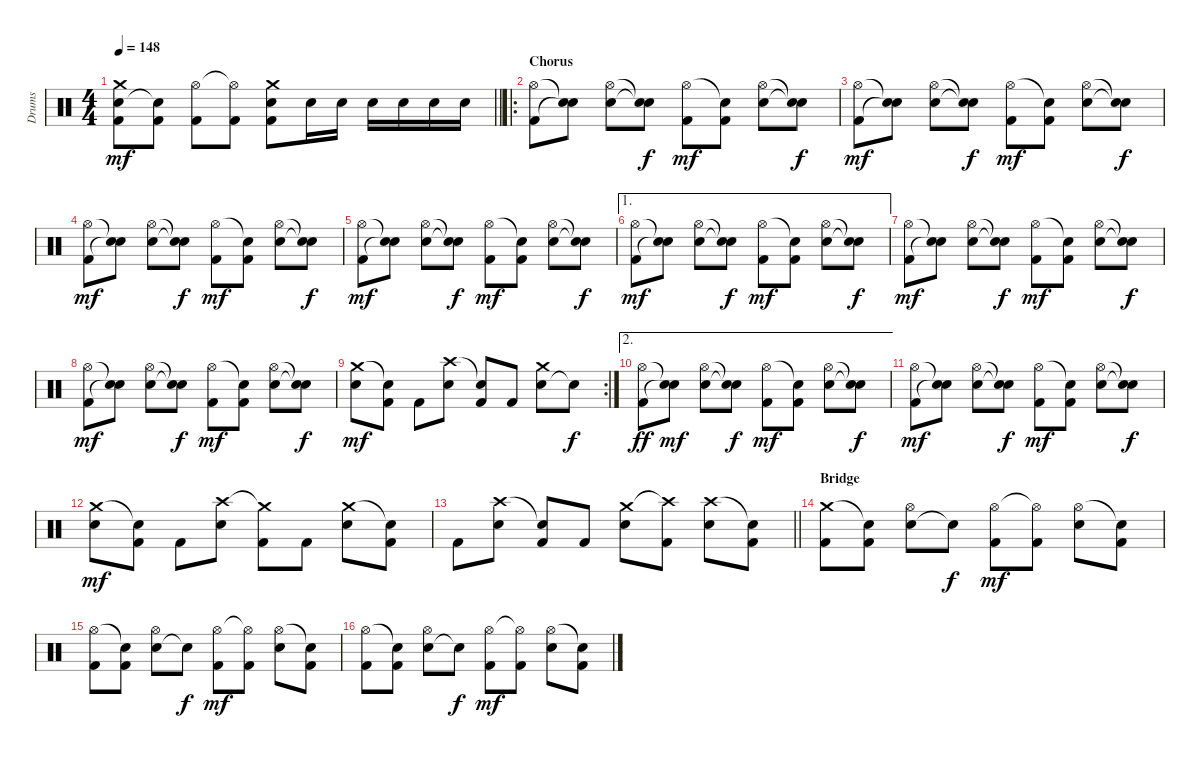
\track ("Drums" "Drums") {instrument percussion}
\staff {score}
\articulation defaults
\ts (4 4)
\tempo 148
\clef neutral
\barLineRight lightlight
\ks c
("Kick (hit) 2" "Snare (hit) 2" "Crash medium (hit)").8{dy mf} ("Kick (hit) 2" "Snare (hit)"{t}).8 ("Kick (hit) 2" "Hi-Hat (open)").8 ("Kick (hit) 2" "Hi-Hat (open)"{t}).8 ("Kick (hit) 2" "Snare (hit) 2" "Crash medium (hit)").8 "Snare (hit) 2".16 "Snare (hit) 2".16 "Snare (hit) 2".16 "Snare (hit) 2".16 "Snare (hit) 2".16 "Snare (hit) 2".16 |
\ro
\section ("" "Chorus")
("Kick (hit) 2" "Hi-Hat (open)").8 ("Snare (hit)"{t} "Snare (hit)"{t}).8 ("Snare (hit) 2" "Hi-Hat (open)").8 ("Snare (hit)"{t} "Snare (hit)"{t}).8{dy f} ("Kick (hit) 2" "Hi-Hat (open)").8{dy mf} ("Kick (hit) 2" "Snare (hit)"{t}).8 ("Snare (hit) 2" "Hi-Hat (open)").8 ("Snare (hit)"{t} "Snare (hit)"{t}).8{dy f} |
("Kick (hit) 2" "Hi-Hat (open)").8{dy mf} ("Snare (hit)"{t} "Snare (hit)"{t}).8 ("Snare (hit) 2" "Hi-Hat (open)").8 ("Snare (hit)"{t} "Snare (hit)"{t}).8{dy f} ("Kick (hit) 2" "Hi-Hat (open)").8{dy mf} ("Kick (hit) 2" "Snare (hit)"{t}).8 ("Snare (hit) 2" "Hi-Hat (open)").8 ("Snare (hit)"{t} "Snare (hit)"{t}).8{dy f} |
("Kick (hit) 2" "Hi-Hat (open)").8{dy mf} ("Snare (hit)"{t} "Snare (hit)"{t}).8 ("Snare (hit) 2" "Hi-Hat (open)").8 ("Snare (hit)"{t} "Snare (hit)"{t}).8{dy f} ("Kick (hit) 2" "Hi-Hat (open)").8{dy mf} ("Kick (hit) 2" "Snare (hit)"{t}).8 ("Snare (hit) 2" "Hi-Hat (open)").8 ("Snare (hit)"{t} "Snare (hit)"{t}).8{dy f} |
("Kick (hit) 2" "Hi-Hat (open)").8{dy mf} ("Snare (hit)"{t} "Snare (hit)"{t}).8 ("Snare (hit) 2" "Hi-Hat (open)").8 ("Snare (hit)"{t} "Snare (hit)"{t}).8{dy f} ("Kick (hit) 2" "Hi-Hat (open)").8{dy mf} ("Kick (hit) 2" "Snare (hit)"{t}).8 ("Snare (hit) 2" "Hi-Hat (open)").8 ("Snare (hit)"{t} "Snare (hit)"{t}).8{dy f} |
\ae 1
("Kick (hit) 2" "Hi-Hat (open)").8{dy mf} ("Snare (hit)"{t} "Snare (hit)"{t}).8 ("Snare (hit) 2" "Hi-Hat (open)").8 ("Snare (hit)"{t} "Snare (hit)"{t}).8{dy f} ("Kick (hit) 2" "Hi-Hat (open)").8{dy mf} ("Kick (hit) 2" "Snare (hit)"{t}).8 ("Snare (hit) 2" "Hi-Hat (open)").8 ("Snare (hit)"{t} "Snare (hit)"{t}).8{dy f} |
("Kick (hit) 2" "Hi-Hat (open)").8{dy mf} ("Snare (hit)"{t} "Snare (hit)"{t}).8 ("Snare (hit) 2" "Hi-Hat (open)").8 ("Snare (hit)"{t} "Snare (hit)"{t}).8{dy f} ("Kick (hit) 2" "Hi-Hat (open)").8{dy mf} ("Kick (hit) 2" "Snare (hit)"{t}).8 ("Snare (hit) 2" "Hi-Hat (open)").8 ("Snare (hit)"{t} "Snare (hit)"{t}).8{dy f} |
("Kick (hit) 2" "Hi-Hat (open)").8{dy mf} ("Snare (hit)"{t} "Snare (hit)"{t}).8 ("Snare (hit) 2" "Hi-Hat (open)").8 ("Snare (hit)"{t} "Snare (hit)"{t}).8{dy f} ("Kick (hit) 2" "Hi-Hat (open)").8{dy mf} ("Kick (hit) 2" "Snare (hit)"{t}).8 ("Snare (hit) 2" "Hi-Hat (open)").8 ("Snare (hit)"{t} "Snare (hit)"{t}).8{dy f} |
\rc 2
("Snare (hit) 2" "Crash medium (hit)").8{dy mf} ("Kick (hit) 2" "Snare (hit)"{t}).8 "Kick (hit) 2".8 ("Snare (hit) 2" "Crash high (hit)").8 ("Kick (hit) 2" "Snare (hit)"{t}).8 "Kick (hit) 2".8 ("Snare (hit) 2" "Crash medium (hit)").8 "Snare (hit)"{t}.8{dy f} |
\ae 2
("Kick (hit) 2" "Hi-Hat (open)").8{dy ff} ("Snare (hit)"{t} "Snare (hit)"{t}).8{dy mf} ("Snare (hit) 2" "Hi-Hat (open)").8 ("Snare (hit)"{t} "Snare (hit)"{t}).8{dy f} ("Kick (hit) 2" "Hi-Hat (open)").8{dy mf} ("Kick (hit) 2" "Snare (hit)"{t}).8 ("Snare (hit) 2" "Hi-Hat (open)").8 ("Snare (hit)"{t} "Snare (hit)"{t}).8{dy f} |
("Kick (hit) 2" "Hi-Hat (open)").8{dy mf} ("Snare (hit)"{t} "Snare (hit)"{t}).8 ("Snare (hit) 2" "Hi-Hat (open)").8 ("Snare (hit)"{t} "Snare (hit)"{t}).8{dy f} ("Kick (hit) 2" "Hi-Hat (open)").8{dy mf} ("Kick (hit) 2" "Snare (hit)"{t}).8 ("Snare (hit) 2" "Hi-Hat (open)").8 ("Snare (hit)"{t} "Snare (hit)"{t}).8{dy f} |
("Snare (hit) 2" "Crash medium (hit)").8{dy mf} ("Kick (hit) 2" "Snare (hit)"{t}).8 "Kick (hit) 2".8 ("Snare (hit) 2" "Crash high (hit)").8 ("Kick (hit) 2" "Crash medium (hit)"{t}).8 "Kick (hit) 2".8 ("Snare (hit) 2" "Crash medium (hit)").8 ("Kick (hit) 2" "Snare (hit)"{t}).8 |
\barLineRight lightlight "Kick (hit) 2".8
("Snare (hit) 2" "Crash high (hit)").8 ("Kick (hit) 2" "Snare (hit)"{t}).8 "Kick (hit) 2".8 ("Snare (hit) 2" "Crash medium (hit)").8 ("Kick (hit) 2" "Crash high (hit)"{t}).8 ("Snare (hit) 2" "Crash high (hit)").8 ("Kick (hit) 2" "Snare (hit)"{t}).8 |
\section ("" "Bridge")
("Kick (hit) 2" "Crash medium (hit)").8 ("Kick (hit) 2" "Snare (hit)"{t}).8 ("Snare (hit) 2" "Hi-Hat (open)").8 "Snare (hit)"{t}.8{dy f} ("Kick (hit) 2" "Hi-Hat (open)").8{dy mf} ("Kick (hit) 2" "Hi-Hat (open)"{t}).8 ("Snare (hit) 2" "Hi-Hat (open)").8 ("Kick (hit) 2" "Snare (hit)"{t}).8 |
("Kick (hit) 2" "Hi-Hat (open)").8 ("Kick (hit) 2" "Snare (hit)"{t}).8 ("Snare (hit) 2" "Hi-Hat (open)").8 "Snare (hit)"{t}.8{dy f} ("Kick (hit) 2" "Hi-Hat (open)").8{dy mf} ("Kick (hit) 2" "Hi-Hat (open)"{t}).8 ("Snare (hit) 2" "Hi-Hat (open)").8 ("Kick (hit) 2" "Snare (hit)"{t}).8 |
("Kick (hit) 2" "Hi-Hat (open)").8 ("Kick (hit) 2" "Snare (hit)"{t}).8 ("Snare (hit) 2" "Hi-Hat (open)").8 "Snare (hit)"{t}.8{dy f} ("Kick (hit) 2" "Hi-Hat (open)").8{dy mf} ("Kick (hit) 2" "Hi-Hat (open)"{t}).8 ("Snare (hit) 2" "Hi-Hat (open)").8 ("Kick (hit) 2" "Snare (hit)"{t}).8
